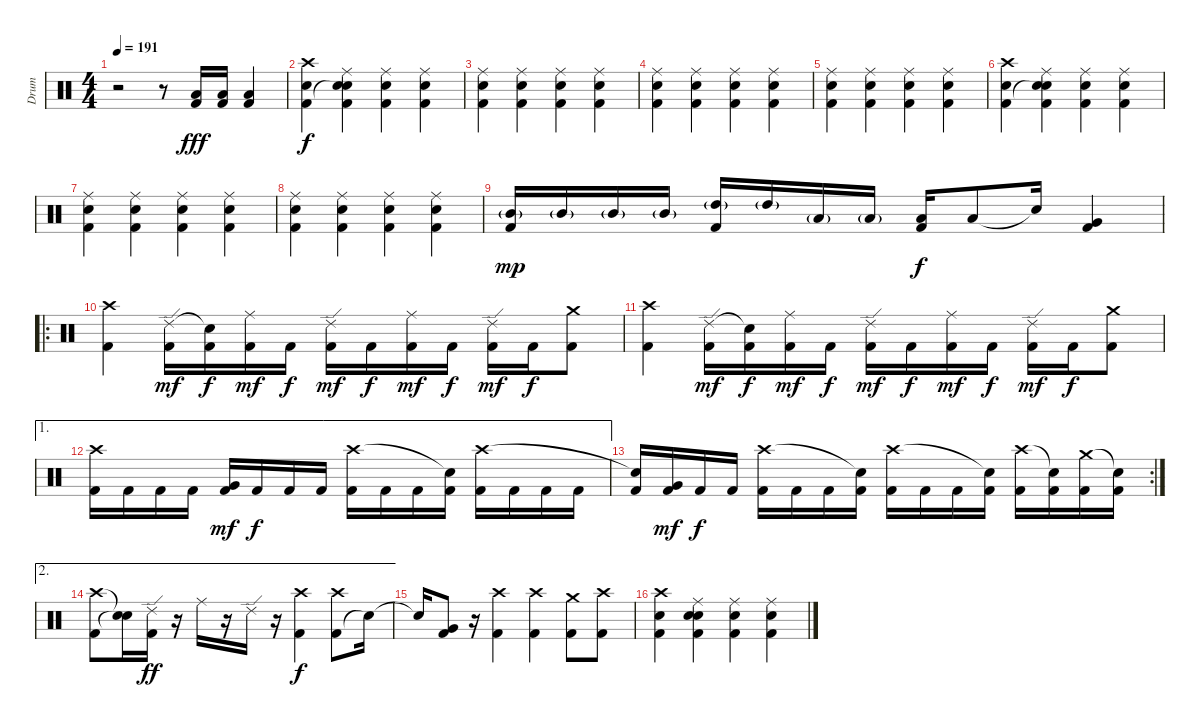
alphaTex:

\track ("Drum" "Drum") {instrument percussion}
\staff {score}
\articulation defaults
\ts (4 4)
\tempo 191
\clef neutral
\ks c
r.2{dy fff} r.8 ("Low Floor Tom (hit)" "Kick (hit) 2").16 ("Low Floor Tom (hit)" "Kick (hit) 2").16 ("Low Floor Tom (hit)" "Kick (hit) 2").4 |
("Snare (hit) 2" "Crash high (hit)" "Kick (hit) 2").4{dy f} ("Snare (hit) 2" "Ride (middle)" "Snare (hit)"{t} "Kick (hit) 2").4 ("Snare (hit) 2" "Ride (middle)" "Kick (hit) 2").4 ("Snare (hit) 2" "Ride (middle)" "Kick (hit) 2").4 |
("Snare (hit) 2" "Ride (middle)" "Kick (hit) 2").4 ("Snare (hit) 2" "Ride (middle)" "Kick (hit) 2").4 ("Snare (hit) 2" "Ride (middle)" "Kick (hit) 2").4 ("Snare (hit) 2" "Ride (middle)" "Kick (hit) 2").4 |
("Snare (hit) 2" "Ride (middle)" "Kick (hit) 2").4 ("Snare (hit) 2" "Ride (middle)" "Kick (hit) 2").4 ("Snare (hit) 2" "Ride (middle)" "Kick (hit) 2").4 ("Snare (hit) 2" "Ride (middle)" "Kick (hit) 2").4 |
("Snare (hit) 2" "Ride (middle)" "Kick (hit) 2").4 ("Snare (hit) 2" "Ride (middle)" "Kick (hit) 2").4 ("Snare (hit) 2" "Ride (middle)" "Kick (hit) 2").4 ("Snare (hit) 2" "Ride (middle)" "Kick (hit) 2").4 |
("Snare (hit) 2" "Crash high (hit)" "Kick (hit) 2").4 ("Snare (hit) 2" "Ride (middle)" "Snare (hit)"{t} "Kick (hit) 2").4 ("Snare (hit) 2" "Ride (middle)" "Kick (hit) 2").4 ("Snare (hit) 2" "Ride (middle)" "Kick (hit) 2").4 |
("Snare (hit) 2" "Ride (middle)" "Kick (hit) 2").4 ("Snare (hit) 2" "Ride (middle)" "Kick (hit) 2").4 ("Snare (hit) 2" "Ride (middle)" "Kick (hit) 2").4 ("Snare (hit) 2" "Ride (middle)" "Kick (hit) 2").4 |
("Snare (hit) 2" "Ride (middle)" "Kick (hit) 2").4 ("Snare (hit) 2" "Ride (middle)" "Kick (hit) 2").4 ("Snare (hit) 2" "Ride (middle)" "Kick (hit) 2").4 ("Snare (hit) 2" "Ride (middle)" "Kick (hit) 2").4 |
("Mid Tom (hit)"{g} "Kick (hit) 2").16{dy mp} "Mid Tom (hit)"{g}.16 "Mid Tom (hit)"{g}.16 "Mid Tom (hit)"{g}.16 ("High Tom (hit)"{g} "Kick (hit) 2").16 "High Tom (hit)"{g}.16 "Low Tom (hit)"{g}.16 "Low Tom (hit)"{g}.16 ("Low Tom (hit)" "Kick (hit) 2").16{dy f} "Low Tom (hit)".8 "Snare (hit)"{t}.16 ("Very Low Tom (hit)" "Kick (hit) 2").4 |
\ro
("Kick (hit) 2" "Crash high (hit)").4 ("Kick (hit) 2" "Ride (edge) 2").16{dy mf} ("Kick (hit) 2" "Snare (hit)"{t}).16{dy f} ("Kick (hit) 2" "Ride (middle)").16{dy mf} "Kick (hit) 2".16{dy f} ("Kick (hit) 2" "Ride (edge) 2").16{dy mf} "Kick (hit) 2".16{dy f} ("Kick (hit) 2" "Ride (middle)").16{dy mf} "Kick (hit) 2".16{dy f} ("Kick (hit) 2" "Ride (edge) 2").16{dy mf} "Kick (hit) 2".16{dy f} ("Kick (hit) 2" "Crash medium (hit)").8 |
("Kick (hit) 2" "Crash high (hit)").4 ("Kick (hit) 2" "Ride (edge) 2").16{dy mf} ("Kick (hit) 2" "Snare (hit)"{t}).16{dy f} ("Kick (hit) 2" "Ride (middle)").16{dy mf} "Kick (hit) 2".16{dy f} ("Kick (hit) 2" "Ride (edge) 2").16{dy mf} "Kick (hit) 2".16{dy f} ("Kick (hit) 2" "Ride (middle)").16{dy mf} "Kick (hit) 2".16{dy f} ("Kick (hit) 2" "Ride (edge) 2").16{dy mf} "Kick (hit) 2".16{dy f} ("Kick (hit) 2" "Crash medium (hit)").8 |
\ae 1
("Kick (hit) 2" "Crash high (hit)").16 "Kick (hit) 2".16 "Kick (hit) 2".16 "Kick (hit) 2".16 ("Kick (hit) 2" "Very Low Tom (hit)").16{dy mf} "Kick (hit) 2".16{dy f} "Kick (hit) 2".16 "Kick (hit) 2".16 ("Kick (hit) 2" "Crash high (hit)").16 "Kick (hit) 2".16 "Kick (hit) 2".16 ("Kick (hit) 2" "Snare (hit)"{t}).16 ("Kick (hit) 2" "Crash high (hit)").16 "Kick (hit) 2".16 "Kick (hit) 2".16 "Kick (hit) 2".16 |
\rc 2
("Kick (hit) 2" "Snare (hit)"{t}).16 ("Kick (hit) 2" "Very Low Tom (hit)").16{dy mf} "Kick (hit) 2".16{dy f} "Kick (hit) 2".16 ("Kick (hit) 2" "Crash high (hit)").16 "Kick (hit) 2".16 "Kick (hit) 2".16 ("Kick (hit) 2" "Snare (hit)"{t}).16 ("Kick (hit) 2" "Crash high (hit)").16 "Kick (hit) 2".16 "Kick (hit) 2".16 ("Kick (hit) 2" "Snare (hit)"{t}).16 ("Kick (hit) 2" "Crash high (hit)").16 ("Kick (hit) 2" "Snare (hit)"{t}).16 ("Kick (hit) 2" "Crash medium (hit)").16 ("Kick (hit) 2" "Snare (hit)"{t}).16 |
\ae 2
("Kick (hit) 2" "Crash high (hit)").8 ("Snare (hit)"{t} "Snare (hit)"{t}).16 ("Kick (hit) 2" "Ride (edge) 2").16{dy ff} r.16 "Ride (middle)".16 r.16 "Ride (edge) 2".16 r.16 ("Kick (hit) 2" "Crash high (hit)").4{dy f} ("Kick (hit) 2" "Crash high (hit)").8 "Snare (hit)"{t}.16 |
"Snare (hit)"{t}.16 ("Kick (hit) 2" "Very Low Tom (hit)").8 r.16 ("Kick (hit) 2" "Crash high (hit)").4 ("Kick (hit) 2" "Crash high (hit)").4 ("Kick (hit) 2" "Crash medium (hit)").8 ("Kick (hit) 2" "Crash high (hit)").8 |
("Kick (hit) 2" "Snare (hit) 2" "Crash high (hit)").4 ("Kick (hit) 2" "Snare (hit) 2" "Ride (middle)" "Snare (hit)").4 ("Kick (hit) 2" "Snare (hit) 2" "Ride (middle)").4 ("Kick (hit) 2" "Snare (hit) 2" "Ride (middle)").4
